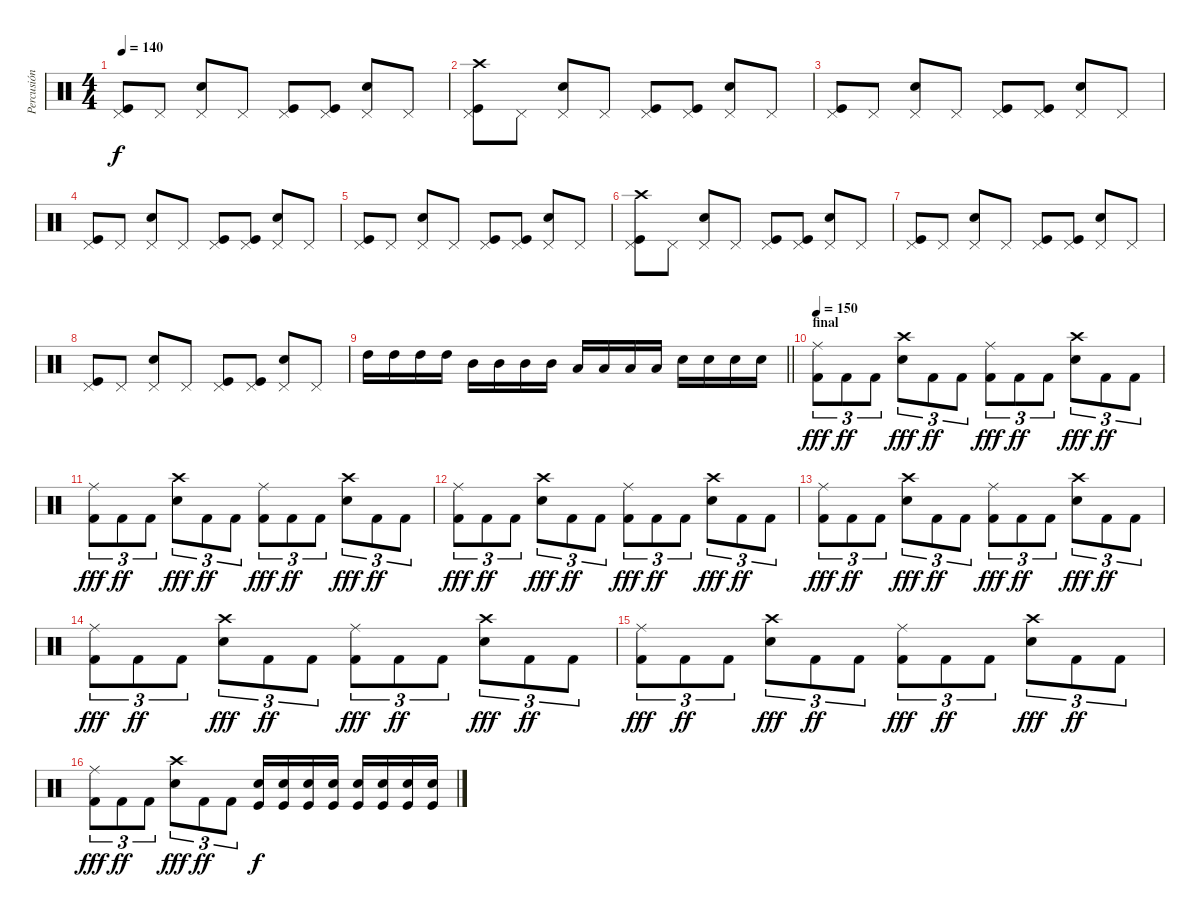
\track ("Percusión" "Percusión") {instrument percussion}
\staff {score}
\articulation defaults
\ts (4 4)
\tempo 140
\clef neutral
\ks c
("Kick (hit)" "Pedal Hi-Hat (hit)").8{dy f} "Pedal Hi-Hat (hit)".8 ("Snare (hit) 2" "Pedal Hi-Hat (hit)").8 "Pedal Hi-Hat (hit)".8 ("Kick (hit)" "Pedal Hi-Hat (hit)").8 ("Kick (hit)" "Pedal Hi-Hat (hit)").8 ("Snare (hit) 2" "Pedal Hi-Hat (hit)").8 "Pedal Hi-Hat (hit)".8 |
("Crash high (hit)" "Kick (hit)" "Pedal Hi-Hat (hit)").8 "Pedal Hi-Hat (hit)".8 ("Snare (hit) 2" "Pedal Hi-Hat (hit)").8 "Pedal Hi-Hat (hit)".8 ("Kick (hit)" "Pedal Hi-Hat (hit)").8 ("Kick (hit)" "Pedal Hi-Hat (hit)").8 ("Snare (hit) 2" "Pedal Hi-Hat (hit)").8 "Pedal Hi-Hat (hit)".8 |
("Kick (hit)" "Pedal Hi-Hat (hit)").8 "Pedal Hi-Hat (hit)".8 ("Snare (hit) 2" "Pedal Hi-Hat (hit)").8 "Pedal Hi-Hat (hit)".8 ("Kick (hit)" "Pedal Hi-Hat (hit)").8 ("Kick (hit)" "Pedal Hi-Hat (hit)").8 ("Snare (hit) 2" "Pedal Hi-Hat (hit)").8 "Pedal Hi-Hat (hit)".8 |
("Kick (hit)" "Pedal Hi-Hat (hit)").8 "Pedal Hi-Hat (hit)".8 ("Snare (hit) 2" "Pedal Hi-Hat (hit)").8 "Pedal Hi-Hat (hit)".8 ("Kick (hit)" "Pedal Hi-Hat (hit)").8 ("Kick (hit)" "Pedal Hi-Hat (hit)").8 ("Snare (hit) 2" "Pedal Hi-Hat (hit)").8 "Pedal Hi-Hat (hit)".8 |
("Kick (hit)" "Pedal Hi-Hat (hit)").8 "Pedal Hi-Hat (hit)".8 ("Snare (hit) 2" "Pedal Hi-Hat (hit)").8 "Pedal Hi-Hat (hit)".8 ("Kick (hit)" "Pedal Hi-Hat (hit)").8 ("Kick (hit)" "Pedal Hi-Hat (hit)").8 ("Snare (hit) 2" "Pedal Hi-Hat (hit)").8 "Pedal Hi-Hat (hit)".8 |
("Crash high (hit)" "Kick (hit)" "Pedal Hi-Hat (hit)").8 "Pedal Hi-Hat (hit)".8 ("Snare (hit) 2" "Pedal Hi-Hat (hit)").8 "Pedal Hi-Hat (hit)".8 ("Kick (hit)" "Pedal Hi-Hat (hit)").8 ("Kick (hit)" "Pedal Hi-Hat (hit)").8 ("Snare (hit) 2" "Pedal Hi-Hat (hit)").8 "Pedal Hi-Hat (hit)".8 |
("Kick (hit)" "Pedal Hi-Hat (hit)").8 "Pedal Hi-Hat (hit)".8 ("Snare (hit) 2" "Pedal Hi-Hat (hit)").8 "Pedal Hi-Hat (hit)".8 ("Kick (hit)" "Pedal Hi-Hat (hit)").8 ("Kick (hit)" "Pedal Hi-Hat (hit)").8 ("Snare (hit) 2" "Pedal Hi-Hat (hit)").8 "Pedal Hi-Hat (hit)".8 |
("Kick (hit)" "Pedal Hi-Hat (hit)").8 "Pedal Hi-Hat (hit)".8 ("Snare (hit) 2" "Pedal Hi-Hat (hit)").8 "Pedal Hi-Hat (hit)".8 ("Kick (hit)" "Pedal Hi-Hat (hit)").8 ("Kick (hit)" "Pedal Hi-Hat (hit)").8 ("Snare (hit) 2" "Pedal Hi-Hat (hit)").8 "Pedal Hi-Hat (hit)".8 |
\barLineRight lightlight "High Tom (hit)".16 "High Tom (hit)".16 "High Tom (hit)".16 "High Tom (hit)".16 "Mid Tom (hit)".16 "Mid Tom (hit)".16 "Mid Tom (hit)".16 "Mid Tom (hit)".16 "Low Tom (hit)".16 "Low Tom (hit)".16 "Low Tom (hit)".16 "Low Tom (hit)".16 "Snare (hit) 2".16 "Snare (hit) 2".16 "Snare (hit) 2".16 "Snare (hit) 2".16
|
\section ("" "final")
\tempo 150
("Kick (hit) 2" "Ride (middle)").8{tu (3 2) dy fff} "Kick (hit) 2".8{tu (3 2) dy ff} "Kick (hit) 2".8{tu (3 2)} ("Electric Snare (hit)" "Crash high (hit)").8{tu (3 2) dy fff} "Kick (hit) 2".8{tu (3 2) dy ff} "Kick (hit) 2".8{tu (3 2)} ("Kick (hit) 2" "Ride (middle)").8{tu (3 2) dy fff} "Kick (hit) 2".8{tu (3 2) dy ff} "Kick (hit) 2".8{tu (3 2)} ("Electric Snare (hit)" "Crash high (hit)").8{tu (3 2) dy fff} "Kick (hit) 2".8{tu (3 2) dy ff} "Kick (hit) 2".8{tu (3 2)} |
("Kick (hit) 2" "Ride (middle)").8{tu (3 2) dy fff} "Kick (hit) 2".8{tu (3 2) dy ff} "Kick (hit) 2".8{tu (3 2)} ("Electric Snare (hit)" "Crash high (hit)").8{tu (3 2) dy fff} "Kick (hit) 2".8{tu (3 2) dy ff} "Kick (hit) 2".8{tu (3 2)} ("Kick (hit) 2" "Ride (middle)").8{tu (3 2) dy fff} "Kick (hit) 2".8{tu (3 2) dy ff} "Kick (hit) 2".8{tu (3 2)} ("Electric Snare (hit)" "Crash high (hit)").8{tu (3 2) dy fff} "Kick (hit) 2".8{tu (3 2) dy ff} "Kick (hit) 2".8{tu (3 2)} |
("Kick (hit) 2" "Ride (middle)").8{tu (3 2) dy fff} "Kick (hit) 2".8{tu (3 2) dy ff} "Kick (hit) 2".8{tu (3 2)} ("Electric Snare (hit)" "Crash high (hit)").8{tu (3 2) dy fff} "Kick (hit) 2".8{tu (3 2) dy ff} "Kick (hit) 2".8{tu (3 2)} ("Kick (hit) 2" "Ride (middle)").8{tu (3 2) dy fff} "Kick (hit) 2".8{tu (3 2) dy ff} "Kick (hit) 2".8{tu (3 2)} ("Electric Snare (hit)" "Crash high (hit)").8{tu (3 2) dy fff} "Kick (hit) 2".8{tu (3 2) dy ff} "Kick (hit) 2".8{tu (3 2)} |
("Kick (hit) 2" "Ride (middle)").8{tu (3 2) dy fff} "Kick (hit) 2".8{tu (3 2) dy ff} "Kick (hit) 2".8{tu (3 2)} ("Electric Snare (hit)" "Crash high (hit)").8{tu (3 2) dy fff} "Kick (hit) 2".8{tu (3 2) dy ff} "Kick (hit) 2".8{tu (3 2)} ("Kick (hit) 2" "Ride (middle)").8{tu (3 2) dy fff} "Kick (hit) 2".8{tu (3 2) dy ff} "Kick (hit) 2".8{tu (3 2)} ("Electric Snare (hit)" "Crash high (hit)").8{tu (3 2) dy fff} "Kick (hit) 2".8{tu (3 2) dy ff} "Kick (hit) 2".8{tu (3 2)} |
("Kick (hit) 2" "Ride (middle)").8{tu (3 2) dy fff} "Kick (hit) 2".8{tu (3 2) dy ff} "Kick (hit) 2".8{tu (3 2)} ("Electric Snare (hit)" "Crash high (hit)").8{tu (3 2) dy fff} "Kick (hit) 2".8{tu (3 2) dy ff} "Kick (hit) 2".8{tu (3 2)} ("Kick (hit) 2" "Ride (middle)").8{tu (3 2) dy fff} "Kick (hit) 2".8{tu (3 2) dy ff} "Kick (hit) 2".8{tu (3 2)} ("Electric Snare (hit)" "Crash high (hit)").8{tu (3 2) dy fff} "Kick (hit) 2".8{tu (3 2) dy ff} "Kick (hit) 2".8{tu (3 2)} |
("Kick (hit) 2" "Ride (middle)").8{tu (3 2) dy fff} "Kick (hit) 2".8{tu (3 2) dy ff} "Kick (hit) 2".8{tu (3 2)} ("Electric Snare (hit)" "Crash high (hit)").8{tu (3 2) dy fff} "Kick (hit) 2".8{tu (3 2) dy ff} "Kick (hit) 2".8{tu (3 2)} ("Kick (hit) 2" "Ride (middle)").8{tu (3 2) dy fff} "Kick (hit) 2".8{tu (3 2) dy ff} "Kick (hit) 2".8{tu (3 2)} ("Electric Snare (hit)" "Crash high (hit)").8{tu (3 2) dy fff} "Kick (hit) 2".8{tu (3 2) dy ff} "Kick (hit) 2".8{tu (3 2)} |
("Kick (hit) 2" "Ride (middle)").8{tu (3 2) dy fff} "Kick (hit) 2".8{tu (3 2) dy ff} "Kick (hit) 2".8{tu (3 2)} ("Electric Snare (hit)" "Crash high (hit)").8{tu (3 2) dy fff} "Kick (hit) 2".8{tu (3 2) dy ff} "Kick (hit) 2".8{tu (3 2)} ("Snare (hit) 2" "Kick (hit)").16{dy f} ("Kick (hit)" "Snare (hit) 2").16 ("Snare (hit) 2" "Kick (hit)").16 ("Snare (hit) 2" "Kick (hit)").16 ("Kick (hit)" "Snare (hit) 2").16 ("Snare (hit) 2" "Kick (hit)").16 ("Kick (hit)" "Snare (hit) 2").16 ("Snare (hit) 2" "Kick (hit)").16
